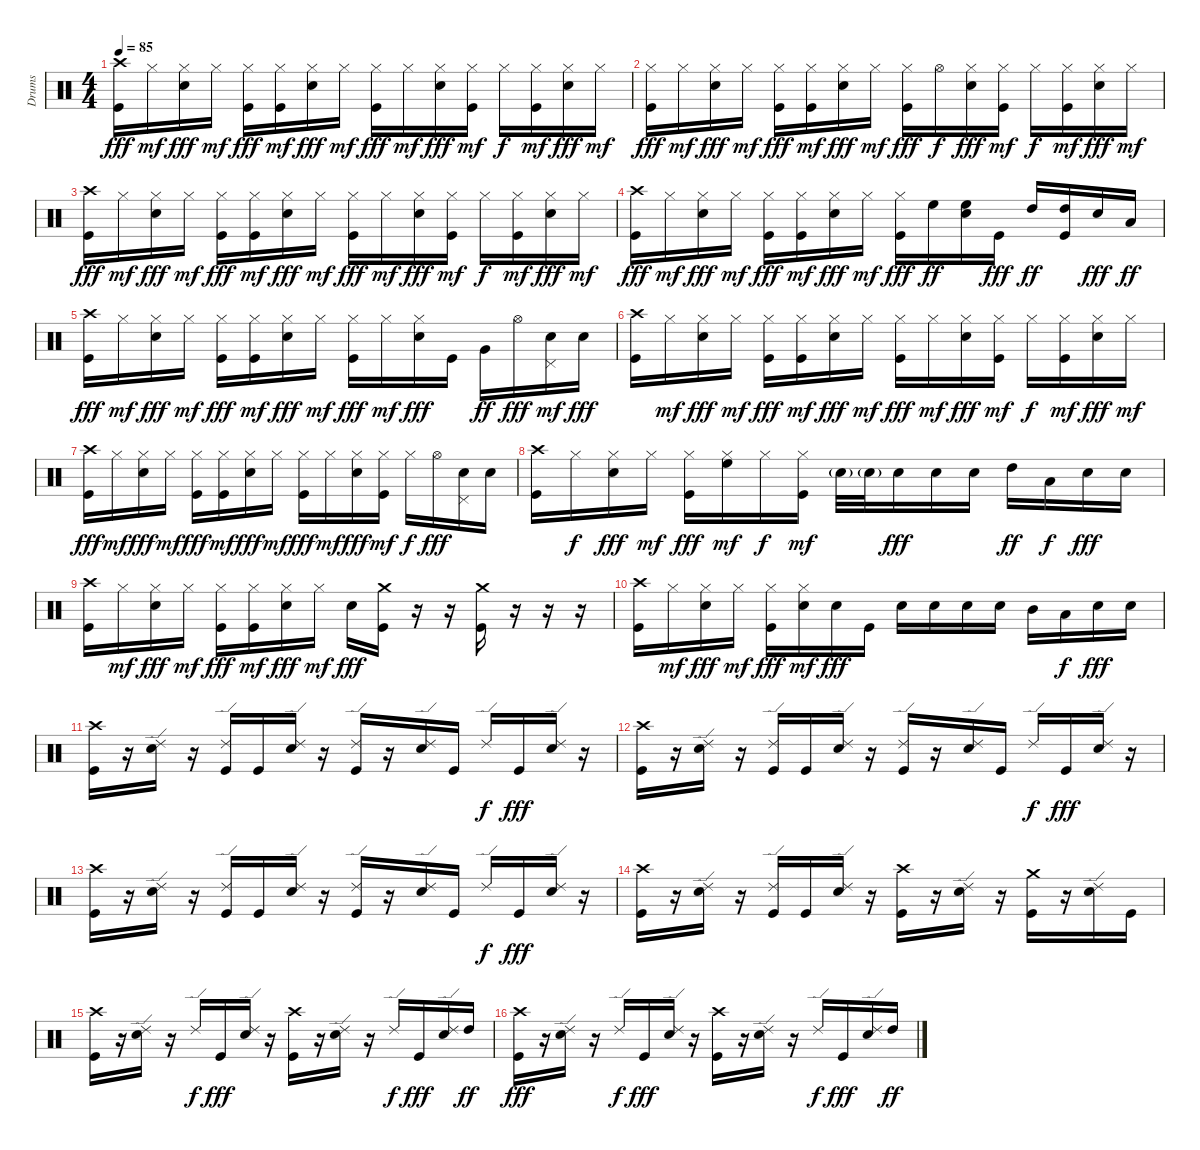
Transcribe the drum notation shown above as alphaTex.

\track ("Drums" "Drums") {instrument percussion}
\staff {score}
\articulation defaults
\ts (4 4)
\tempo 85
\clef neutral
\ks c
("Kick (hit)" "Crash high (hit)").16{dy fff} "Hi-Hat (closed)".16{dy mf} ("Electric Snare (hit)" "Hi-Hat (closed)").16{dy fff} "Hi-Hat (closed)".16{dy mf} ("Kick (hit)" "Hi-Hat (closed)").16{dy fff} ("Kick (hit)" "Hi-Hat (closed)").16{dy mf} ("Electric Snare (hit)" "Hi-Hat (closed)").16{dy fff} "Hi-Hat (closed)".16{dy mf} ("Kick (hit)" "Hi-Hat (closed)").16{dy fff} "Hi-Hat (closed)".16{dy mf} ("Electric Snare (hit)" "Hi-Hat (closed)").16{dy fff} ("Kick (hit)" "Hi-Hat (closed)").16{dy mf} "Hi-Hat (closed)".16{dy f} ("Kick (hit)" "Hi-Hat (closed)").16{dy mf} ("Electric Snare (hit)" "Hi-Hat (closed)").16{dy fff} "Hi-Hat (closed)".16{dy mf} |
("Kick (hit)" "Hi-Hat (closed)").16{dy fff} "Hi-Hat (closed)".16{dy mf} ("Electric Snare (hit)" "Hi-Hat (closed)").16{dy fff} "Hi-Hat (closed)".16{dy mf} ("Kick (hit)" "Hi-Hat (closed)").16{dy fff} ("Kick (hit)" "Hi-Hat (closed)").16{dy mf} ("Electric Snare (hit)" "Hi-Hat (closed)").16{dy fff} "Hi-Hat (closed)".16{dy mf} ("Kick (hit)" "Hi-Hat (closed)").16{dy fff} "Hi-Hat (open)".16{dy f} ("Electric Snare (hit)" "Hi-Hat (closed)").16{dy fff} ("Kick (hit)" "Hi-Hat (closed)").16{dy mf} "Hi-Hat (closed)".16{dy f} ("Kick (hit)" "Hi-Hat (closed)").16{dy mf} ("Electric Snare (hit)" "Hi-Hat (closed)").16{dy fff} "Hi-Hat (closed)".16{dy mf} |
("Kick (hit)" "Crash high (hit)").16{dy fff} "Hi-Hat (closed)".16{dy mf} ("Electric Snare (hit)" "Hi-Hat (closed)").16{dy fff} "Hi-Hat (closed)".16{dy mf} ("Kick (hit)" "Hi-Hat (closed)").16{dy fff} ("Kick (hit)" "Hi-Hat (closed)").16{dy mf} ("Electric Snare (hit)" "Hi-Hat (closed)").16{dy fff} "Hi-Hat (closed)".16{dy mf} ("Kick (hit)" "Hi-Hat (closed)").16{dy fff} "Hi-Hat (closed)".16{dy mf} ("Electric Snare (hit)" "Hi-Hat (closed)").16{dy fff} ("Kick (hit)" "Hi-Hat (closed)").16{dy mf} "Hi-Hat (closed)".16{dy f} ("Kick (hit)" "Hi-Hat (closed)").16{dy mf} ("Electric Snare (hit)" "Hi-Hat (closed)").16{dy fff} "Hi-Hat (closed)".16{dy mf} |
("Kick (hit)" "Crash high (hit)").16{dy fff} "Hi-Hat (closed)".16{dy mf} ("Electric Snare (hit)" "Hi-Hat (closed)").16{dy fff} "Hi-Hat (closed)".16{dy mf} ("Kick (hit)" "Hi-Hat (closed)").16{dy fff} ("Kick (hit)" "Hi-Hat (closed)").16{dy mf} ("Electric Snare (hit)" "Hi-Hat (closed)").16{dy fff} "Hi-Hat (closed)".16{dy mf} ("Kick (hit)" "Hi-Hat (closed)").16{dy fff} "High Floor Tom (hit)".16{dy ff} ("Electric Snare (hit)" "High Floor Tom (hit)").16 "Kick (hit)".16{dy fff} "High Tom (hit)".16{dy ff} ("Kick (hit)" "High Tom (hit)").16 "Electric Snare (hit)".16{dy fff} "Low Tom (hit)".16{dy ff} |
("Kick (hit)" "Crash high (hit)").16{dy fff} "Hi-Hat (closed)".16{dy mf} ("Electric Snare (hit)" "Hi-Hat (closed)").16{dy fff} "Hi-Hat (closed)".16{dy mf} ("Kick (hit)" "Hi-Hat (closed)").16{dy fff} ("Kick (hit)" "Hi-Hat (closed)").16{dy mf} ("Electric Snare (hit)" "Hi-Hat (closed)").16{dy fff} "Hi-Hat (closed)".16{dy mf} ("Kick (hit)" "Hi-Hat (closed)").16{dy fff} "Hi-Hat (closed)".16{dy mf} ("Electric Snare (hit)" "Hi-Hat (closed)").16{dy fff} "Kick (hit)".16 "Very Low Tom (hit)".16{dy ff} "Hi-Hat (open)".16{dy fff} ("Electric Snare (hit)" "Pedal Hi-Hat (hit)").16{dy mf} "Electric Snare (hit)".16{dy fff} |
("Kick (hit)" "Crash high (hit)").16 "Hi-Hat (closed)".16{dy mf} ("Electric Snare (hit)" "Hi-Hat (closed)").16{dy fff} "Hi-Hat (closed)".16{dy mf} ("Kick (hit)" "Hi-Hat (closed)").16{dy fff} ("Kick (hit)" "Hi-Hat (closed)").16{dy mf} ("Electric Snare (hit)" "Hi-Hat (closed)").16{dy fff} "Hi-Hat (closed)".16{dy mf} ("Kick (hit)" "Hi-Hat (closed)").16{dy fff} "Hi-Hat (closed)".16{dy mf} ("Electric Snare (hit)" "Hi-Hat (closed)").16{dy fff} ("Kick (hit)" "Hi-Hat (closed)").16{dy mf} "Hi-Hat (closed)".16{dy f} ("Kick (hit)" "Hi-Hat (closed)").16{dy mf} ("Electric Snare (hit)" "Hi-Hat (closed)").16{dy fff} "Hi-Hat (closed)".16{dy mf} |
("Kick (hit)" "Crash high (hit)").16{dy fff} "Hi-Hat (closed)".16{dy mf} ("Electric Snare (hit)" "Hi-Hat (closed)").16{dy fff} "Hi-Hat (closed)".16{dy mf} ("Kick (hit)" "Hi-Hat (closed)").16{dy fff} ("Kick (hit)" "Hi-Hat (closed)").16{dy mf} ("Electric Snare (hit)" "Hi-Hat (closed)").16{dy fff} "Hi-Hat (closed)".16{dy mf} ("Kick (hit)" "Hi-Hat (closed)").16{dy fff} "Hi-Hat (closed)".16{dy mf} ("Electric Snare (hit)" "Hi-Hat (closed)").16{dy fff} ("Kick (hit)" "Hi-Hat (closed)").16{dy mf} "Hi-Hat (closed)".16{dy f} "Hi-Hat (open)".16{dy fff} ("Electric Snare (hit)" "Pedal Hi-Hat (hit)").16 "Electric Snare (hit)".16 |
("Kick (hit)" "Crash high (hit)").16 "Hi-Hat (closed)".16{dy f} ("Electric Snare (hit)" "Hi-Hat (closed)").16{dy fff} "Hi-Hat (closed)".16{dy mf} ("Kick (hit)" "Hi-Hat (closed)").16{dy fff} ("High Floor Tom (hit)" "Hi-Hat (closed)").16{dy mf} "Hi-Hat (closed)".16{dy f} ("Kick (hit)" "Hi-Hat (closed)").16{dy mf} "Electric Snare (hit)"{g}.32 "Electric Snare (hit)"{g}.32 "Electric Snare (hit)".16{dy fff} "Electric Snare (hit)".16 "Electric Snare (hit)".16 "High Tom (hit)".16{dy ff} "Low Floor Tom (hit)".16{dy f} "Electric Snare (hit)".16{dy fff} "Electric Snare (hit)".16 |
("Kick (hit)" "Crash high (hit)").16 "Hi-Hat (closed)".16{dy mf} ("Electric Snare (hit)" "Hi-Hat (closed)").16{dy fff} "Hi-Hat (closed)".16{dy mf} ("Kick (hit)" "Hi-Hat (closed)").16{dy fff} ("Kick (hit)" "Hi-Hat (closed)").16{dy mf} ("Electric Snare (hit)" "Hi-Hat (closed)").16{dy fff} "Hi-Hat (closed)".16{dy mf} "Electric Snare (hit)".16{dy fff} ("Kick (hit)" "Crash medium (hit)").16 r.16 r.16 ("Kick (hit)" "Crash medium (hit)").16 r.16 r.16 r.16 |
("Kick (hit)" "Crash high (hit)").16 "Hi-Hat (closed)".16{dy mf} ("Electric Snare (hit)" "Hi-Hat (closed)").16{dy fff} "Hi-Hat (closed)".16{dy mf} ("Kick (hit)" "Hi-Hat (closed)").16{dy fff} ("Electric Snare (hit)" "Hi-Hat (closed)").16{dy mf} "Electric Snare (hit)".16{dy fff} "Kick (hit)".16 "Electric Snare (hit)".16 "Electric Snare (hit)".16 "Electric Snare (hit)".16 "Electric Snare (hit)".16 "Mid Tom (hit)".16 "Low Floor Tom (hit)".16{dy f} "Electric Snare (hit)".16{dy fff} "Electric Snare (hit)".16 |
("Kick (hit)" "Crash high (hit)").16 r.16 ("Electric Snare (hit)" "Ride (edge) 2").16 r.16 ("Kick (hit)" "Ride (edge) 2").16 "Kick (hit)".16 ("Electric Snare (hit)" "Ride (edge) 2").16 r.16 ("Kick (hit)" "Ride (edge) 2").16 r.16 ("Electric Snare (hit)" "Ride (edge) 2").16 "Kick (hit)".16 "Ride (edge) 2".16{dy f} "Kick (hit)".16{dy fff} ("Electric Snare (hit)" "Ride (edge) 2").16 r.16 |
("Kick (hit)" "Crash high (hit)").16 r.16 ("Electric Snare (hit)" "Ride (edge) 2").16 r.16 ("Kick (hit)" "Ride (edge) 2").16 "Kick (hit)".16 ("Electric Snare (hit)" "Ride (edge) 2").16 r.16 ("Kick (hit)" "Ride (edge) 2").16 r.16 ("Electric Snare (hit)" "Ride (edge) 2").16 "Kick (hit)".16 "Ride (edge) 2".16{dy f} "Kick (hit)".16{dy fff} ("Electric Snare (hit)" "Ride (edge) 2").16 r.16 |
("Kick (hit)" "Crash high (hit)").16 r.16 ("Electric Snare (hit)" "Ride (edge) 2").16 r.16 ("Kick (hit)" "Ride (edge) 2").16 "Kick (hit)".16 ("Electric Snare (hit)" "Ride (edge) 2").16 r.16 ("Kick (hit)" "Ride (edge) 2").16 r.16 ("Electric Snare (hit)" "Ride (edge) 2").16 "Kick (hit)".16 "Ride (edge) 2".16{dy f} "Kick (hit)".16{dy fff} ("Electric Snare (hit)" "Ride (edge) 2").16 r.16 |
("Kick (hit)" "Crash high (hit)").16 r.16 ("Electric Snare (hit)" "Ride (edge) 2").16 r.16 ("Kick (hit)" "Ride (edge) 2").16 "Kick (hit)".16 ("Electric Snare (hit)" "Ride (edge) 2").16 r.16 ("Kick (hit)" "Crash high (hit)").16 r.16 ("Electric Snare (hit)" "Ride (edge) 2").16 r.16 ("Kick (hit)" "Crash medium (hit)").16 r.16 ("Electric Snare (hit)" "Ride (edge) 2").16 "Kick (hit)".16 |
("Kick (hit)" "Crash high (hit)").16 r.16 ("Electric Snare (hit)" "Ride (edge) 2").16 r.16 "Ride (edge) 2".16{dy f} "Kick (hit)".16{dy fff} ("Electric Snare (hit)" "Ride (edge) 2").16 r.16 ("Kick (hit)" "Crash high (hit)").16 r.16 ("Electric Snare (hit)" "Ride (edge) 2").16 r.16 "Ride (edge) 2".16{dy f} "Kick (hit)".16{dy fff} ("Electric Snare (hit)" "Ride (edge) 2").16 "High Tom (hit)".16{dy ff} |
("Kick (hit)" "Crash high (hit)").16{dy fff} r.16 ("Electric Snare (hit)" "Ride (edge) 2").16 r.16 "Ride (edge) 2".16{dy f} "Kick (hit)".16{dy fff} ("Electric Snare (hit)" "Ride (edge) 2").16 r.16 ("Kick (hit)" "Crash high (hit)").16 r.16 ("Electric Snare (hit)" "Ride (edge) 2").16 r.16 "Ride (edge) 2".16{dy f} "Kick (hit)".16{dy fff} ("Electric Snare (hit)" "Ride (edge) 2").16 "High Tom (hit)".16{dy ff}
